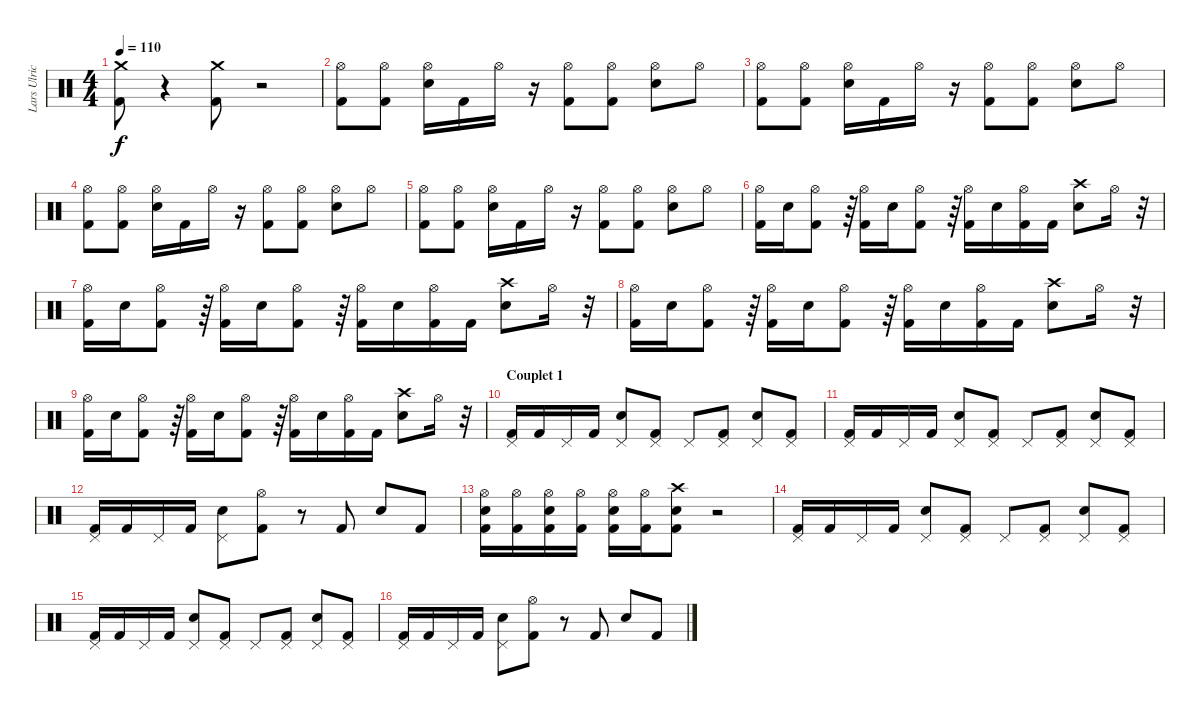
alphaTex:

\track ("Lars Ulrich" "Lars Ulric") {instrument percussion}
\staff {score}
\articulation defaults
\ts (4 4)
\tempo 110
\clef neutral
\ks c
("Crash medium (hit)" "Kick (hit) 2").8{dy f} r.4 ("Crash medium (hit)" "Kick (hit) 2").8 r.2 |
("Hi-Hat (open)" "Kick (hit) 2").8 ("Hi-Hat (open)" "Kick (hit) 2").8 ("Hi-Hat (open)" "Electric Snare (hit)").16 "Kick (hit) 2".16 "Hi-Hat (open)".16 r.16 ("Hi-Hat (open)" "Kick (hit) 2").8 ("Hi-Hat (open)" "Kick (hit) 2").8 ("Hi-Hat (open)" "Electric Snare (hit)").8 "Hi-Hat (open)".8 |
("Hi-Hat (open)" "Kick (hit) 2").8 ("Hi-Hat (open)" "Kick (hit) 2").8 ("Hi-Hat (open)" "Electric Snare (hit)").16 "Kick (hit) 2".16 "Hi-Hat (open)".16 r.16 ("Hi-Hat (open)" "Kick (hit) 2").8 ("Hi-Hat (open)" "Kick (hit) 2").8 ("Hi-Hat (open)" "Electric Snare (hit)").8 "Hi-Hat (open)".8 |
("Hi-Hat (open)" "Kick (hit) 2").8 ("Hi-Hat (open)" "Kick (hit) 2").8 ("Hi-Hat (open)" "Electric Snare (hit)").16 "Kick (hit) 2".16 "Hi-Hat (open)".16 r.16 ("Hi-Hat (open)" "Kick (hit) 2").8 ("Hi-Hat (open)" "Kick (hit) 2").8 ("Hi-Hat (open)" "Electric Snare (hit)").8 "Hi-Hat (open)".8 |
("Hi-Hat (open)" "Kick (hit) 2").8 ("Hi-Hat (open)" "Kick (hit) 2").8 ("Hi-Hat (open)" "Electric Snare (hit)").16 "Kick (hit) 2".16 "Hi-Hat (open)".16 r.16 ("Hi-Hat (open)" "Kick (hit) 2").8 ("Hi-Hat (open)" "Kick (hit) 2").8 ("Hi-Hat (open)" "Electric Snare (hit)").8 "Hi-Hat (open)".8 |
("Hi-Hat (open)" "Kick (hit) 2").16 "Electric Snare (hit)".16 ("Hi-Hat (open)" "Kick (hit) 2").8 r.64 ("Hi-Hat (open)" "Kick (hit) 2").16 "Electric Snare (hit)".16 ("Hi-Hat (open)" "Kick (hit) 2").8 r.64 ("Hi-Hat (open)" "Kick (hit) 2").16 "Electric Snare (hit)".16 ("Hi-Hat (open)" "Kick (hit) 2").16 "Kick (hit) 2".16 ("Crash high (hit)" "Electric Snare (hit)").8 "Hi-Hat (open)".16 r.32 |
("Hi-Hat (open)" "Kick (hit) 2").16 "Electric Snare (hit)".16 ("Hi-Hat (open)" "Kick (hit) 2").8 r.64 ("Hi-Hat (open)" "Kick (hit) 2").16 "Electric Snare (hit)".16 ("Hi-Hat (open)" "Kick (hit) 2").8 r.64 ("Hi-Hat (open)" "Kick (hit) 2").16 "Electric Snare (hit)".16 ("Hi-Hat (open)" "Kick (hit) 2").16 "Kick (hit) 2".16 ("Crash high (hit)" "Electric Snare (hit)").8 "Hi-Hat (open)".16 r.32 |
("Hi-Hat (open)" "Kick (hit) 2").16 "Electric Snare (hit)".16 ("Hi-Hat (open)" "Kick (hit) 2").8 r.64 ("Hi-Hat (open)" "Kick (hit) 2").16 "Electric Snare (hit)".16 ("Hi-Hat (open)" "Kick (hit) 2").8 r.64 ("Hi-Hat (open)" "Kick (hit) 2").16 "Electric Snare (hit)".16 ("Hi-Hat (open)" "Kick (hit) 2").16 "Kick (hit) 2".16 ("Crash high (hit)" "Electric Snare (hit)").8 "Hi-Hat (open)".16 r.32 |
("Hi-Hat (open)" "Kick (hit) 2").16 "Electric Snare (hit)".16 ("Hi-Hat (open)" "Kick (hit) 2").8 r.64 ("Hi-Hat (open)" "Kick (hit) 2").16 "Electric Snare (hit)".16 ("Hi-Hat (open)" "Kick (hit) 2").8 r.64 ("Hi-Hat (open)" "Kick (hit) 2").16 "Electric Snare (hit)".16 ("Hi-Hat (open)" "Kick (hit) 2").16 "Kick (hit) 2".16 ("Crash high (hit)" "Electric Snare (hit)").8 "Hi-Hat (open)".16 r.32 |
\section ("" "Couplet 1")
("Pedal Hi-Hat (hit)" "Kick (hit) 2").16 "Kick (hit) 2".16 "Pedal Hi-Hat (hit)".16 "Kick (hit) 2".16 ("Pedal Hi-Hat (hit)" "Electric Snare (hit)").8 ("Pedal Hi-Hat (hit)" "Kick (hit) 2").8 "Pedal Hi-Hat (hit)".8 ("Pedal Hi-Hat (hit)" "Kick (hit) 2").8 ("Pedal Hi-Hat (hit)" "Electric Snare (hit)").8 ("Pedal Hi-Hat (hit)" "Kick (hit) 2").8 |
("Pedal Hi-Hat (hit)" "Kick (hit) 2").16 "Kick (hit) 2".16 "Pedal Hi-Hat (hit)".16 "Kick (hit) 2".16 ("Pedal Hi-Hat (hit)" "Electric Snare (hit)").8 ("Pedal Hi-Hat (hit)" "Kick (hit) 2").8 "Pedal Hi-Hat (hit)".8 ("Pedal Hi-Hat (hit)" "Kick (hit) 2").8 ("Pedal Hi-Hat (hit)" "Electric Snare (hit)").8 ("Pedal Hi-Hat (hit)" "Kick (hit) 2").8 |
("Pedal Hi-Hat (hit)" "Kick (hit) 2").16 "Kick (hit) 2".16 "Pedal Hi-Hat (hit)".16 "Kick (hit) 2".16 ("Pedal Hi-Hat (hit)" "Electric Snare (hit)").8 ("Hi-Hat (open)" "Kick (hit) 2").8 r.8 "Kick (hit) 2".8 "Electric Snare (hit)".8 "Kick (hit) 2".8 |
("Hi-Hat (open)" "Electric Snare (hit)" "Kick (hit) 2").16 ("Hi-Hat (open)" "Kick (hit) 2").16 ("Hi-Hat (open)" "Electric Snare (hit)" "Kick (hit) 2").16 ("Hi-Hat (open)" "Kick (hit) 2").16 ("Hi-Hat (open)" "Electric Snare (hit)" "Kick (hit) 2").16 ("Hi-Hat (open)" "Kick (hit) 2").16 ("Crash high (hit)" "Electric Snare (hit)" "Kick (hit) 2").8 r.2 |
("Pedal Hi-Hat (hit)" "Kick (hit) 2").16 "Kick (hit) 2".16 "Pedal Hi-Hat (hit)".16 "Kick (hit) 2".16 ("Pedal Hi-Hat (hit)" "Electric Snare (hit)").8 ("Pedal Hi-Hat (hit)" "Kick (hit) 2").8 "Pedal Hi-Hat (hit)".8 ("Pedal Hi-Hat (hit)" "Kick (hit) 2").8 ("Pedal Hi-Hat (hit)" "Electric Snare (hit)").8 ("Pedal Hi-Hat (hit)" "Kick (hit) 2").8 |
("Pedal Hi-Hat (hit)" "Kick (hit) 2").16 "Kick (hit) 2".16 "Pedal Hi-Hat (hit)".16 "Kick (hit) 2".16 ("Pedal Hi-Hat (hit)" "Electric Snare (hit)").8 ("Pedal Hi-Hat (hit)" "Kick (hit) 2").8 "Pedal Hi-Hat (hit)".8 ("Pedal Hi-Hat (hit)" "Kick (hit) 2").8 ("Pedal Hi-Hat (hit)" "Electric Snare (hit)").8 ("Pedal Hi-Hat (hit)" "Kick (hit) 2").8 |
("Pedal Hi-Hat (hit)" "Kick (hit) 2").16 "Kick (hit) 2".16 "Pedal Hi-Hat (hit)".16 "Kick (hit) 2".16 ("Pedal Hi-Hat (hit)" "Electric Snare (hit)").8 ("Hi-Hat (open)" "Kick (hit) 2").8 r.8 "Kick (hit) 2".8 "Electric Snare (hit)".8 "Kick (hit) 2".8
